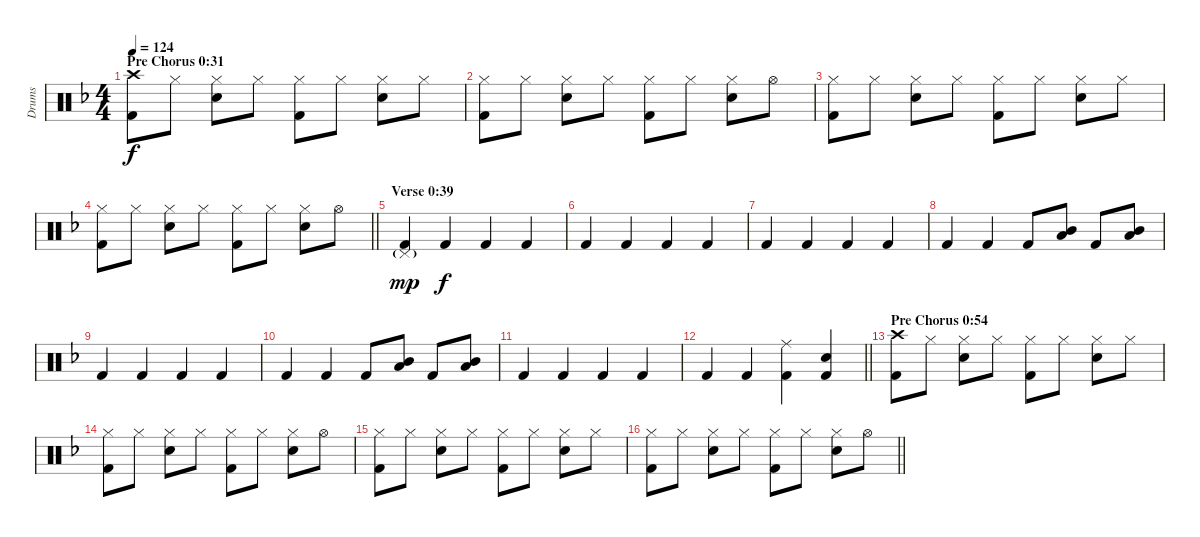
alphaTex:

\track ("Drums" "Drums") {instrument percussion}
\staff {score}
\articulation defaults
\ts (4 4)
\section ("" "Pre Chorus 0:31")
\tempo 124
\clef neutral
\ks f
("Crash high (hit)" "Kick (hit) 2").8{dy f} "Hi-Hat (closed)".8 ("Hi-Hat (closed)" "Snare (hit) 2").8 "Hi-Hat (closed)".8 ("Hi-Hat (closed)" "Kick (hit) 2").8 "Hi-Hat (closed)".8 ("Hi-Hat (closed)" "Snare (hit) 2").8 "Hi-Hat (closed)".8 |
("Hi-Hat (closed)" "Kick (hit) 2").8 "Hi-Hat (closed)".8 ("Hi-Hat (closed)" "Snare (hit) 2").8 "Hi-Hat (closed)".8 ("Hi-Hat (closed)" "Kick (hit) 2").8 "Hi-Hat (closed)".8 ("Hi-Hat (closed)" "Snare (hit) 2").8 "Hi-Hat (open)".8 |
("Hi-Hat (closed)" "Kick (hit) 2").8 "Hi-Hat (closed)".8 ("Hi-Hat (closed)" "Snare (hit) 2").8 "Hi-Hat (closed)".8 ("Hi-Hat (closed)" "Kick (hit) 2").8 "Hi-Hat (closed)".8 ("Hi-Hat (closed)" "Snare (hit) 2").8 "Hi-Hat (closed)".8 |
\barLineRight lightlight
("Hi-Hat (closed)" "Kick (hit) 2").8 "Hi-Hat (closed)".8 ("Hi-Hat (closed)" "Snare (hit) 2").8 "Hi-Hat (closed)".8 ("Hi-Hat (closed)" "Kick (hit) 2").8 "Hi-Hat (closed)".8 ("Hi-Hat (closed)" "Snare (hit) 2").8 "Hi-Hat (open)".8 |
\section ("" "Verse 0:39")
("Pedal Hi-Hat (hit)"{g} "Kick (hit) 2").4{dy mp} "Kick (hit) 2".4{dy f} "Kick (hit) 2".4 "Kick (hit) 2".4 |
"Kick (hit) 2".4 "Kick (hit) 2".4 "Kick (hit) 2".4 "Kick (hit) 2".4 |
"Kick (hit) 2".4 "Kick (hit) 2".4 "Kick (hit) 2".4 "Kick (hit) 2".4 |
"Kick (hit) 2".4 "Kick (hit) 2".4 "Kick (hit) 2".8 ("Low Tom (hit)" "Mid Tom (hit)").8 "Kick (hit) 2".8 ("Low Tom (hit)" "Mid Tom (hit)").8 |
"Kick (hit) 2".4 "Kick (hit) 2".4 "Kick (hit) 2".4 "Kick (hit) 2".4 |
"Kick (hit) 2".4 "Kick (hit) 2".4 "Kick (hit) 2".8 ("Low Tom (hit)" "Mid Tom (hit)").8 "Kick (hit) 2".8 ("Low Tom (hit)" "Mid Tom (hit)").8 |
"Kick (hit) 2".4 "Kick (hit) 2".4 "Kick (hit) 2".4 "Kick (hit) 2".4 |
\barLineRight lightlight "Kick (hit) 2".4 "Kick (hit) 2".4
("Ride (middle)" "Kick (hit) 2").4 ("Snare (hit) 2" "Kick (hit) 2").4 |
\section ("" "Pre Chorus 0:54")
("Crash high (hit)" "Kick (hit) 2").8 "Hi-Hat (closed)".8 ("Hi-Hat (closed)" "Snare (hit) 2").8 "Hi-Hat (closed)".8 ("Hi-Hat (closed)" "Kick (hit) 2").8 "Hi-Hat (closed)".8 ("Hi-Hat (closed)" "Snare (hit) 2").8 "Hi-Hat (closed)".8 |
("Hi-Hat (closed)" "Kick (hit) 2").8 "Hi-Hat (closed)".8 ("Hi-Hat (closed)" "Snare (hit) 2").8 "Hi-Hat (closed)".8 ("Hi-Hat (closed)" "Kick (hit) 2").8 "Hi-Hat (closed)".8 ("Hi-Hat (closed)" "Snare (hit) 2").8 "Hi-Hat (open)".8 |
("Hi-Hat (closed)" "Kick (hit) 2").8 "Hi-Hat (closed)".8 ("Hi-Hat (closed)" "Snare (hit) 2").8 "Hi-Hat (closed)".8 ("Hi-Hat (closed)" "Kick (hit) 2").8 "Hi-Hat (closed)".8 ("Hi-Hat (closed)" "Snare (hit) 2").8 "Hi-Hat (closed)".8 |
\barLineRight lightlight
("Hi-Hat (closed)" "Kick (hit) 2").8 "Hi-Hat (closed)".8 ("Hi-Hat (closed)" "Snare (hit) 2").8 "Hi-Hat (closed)".8 ("Hi-Hat (closed)" "Kick (hit) 2").8 "Hi-Hat (closed)".8 ("Hi-Hat (closed)" "Snare (hit) 2").8 "Hi-Hat (open)".8
